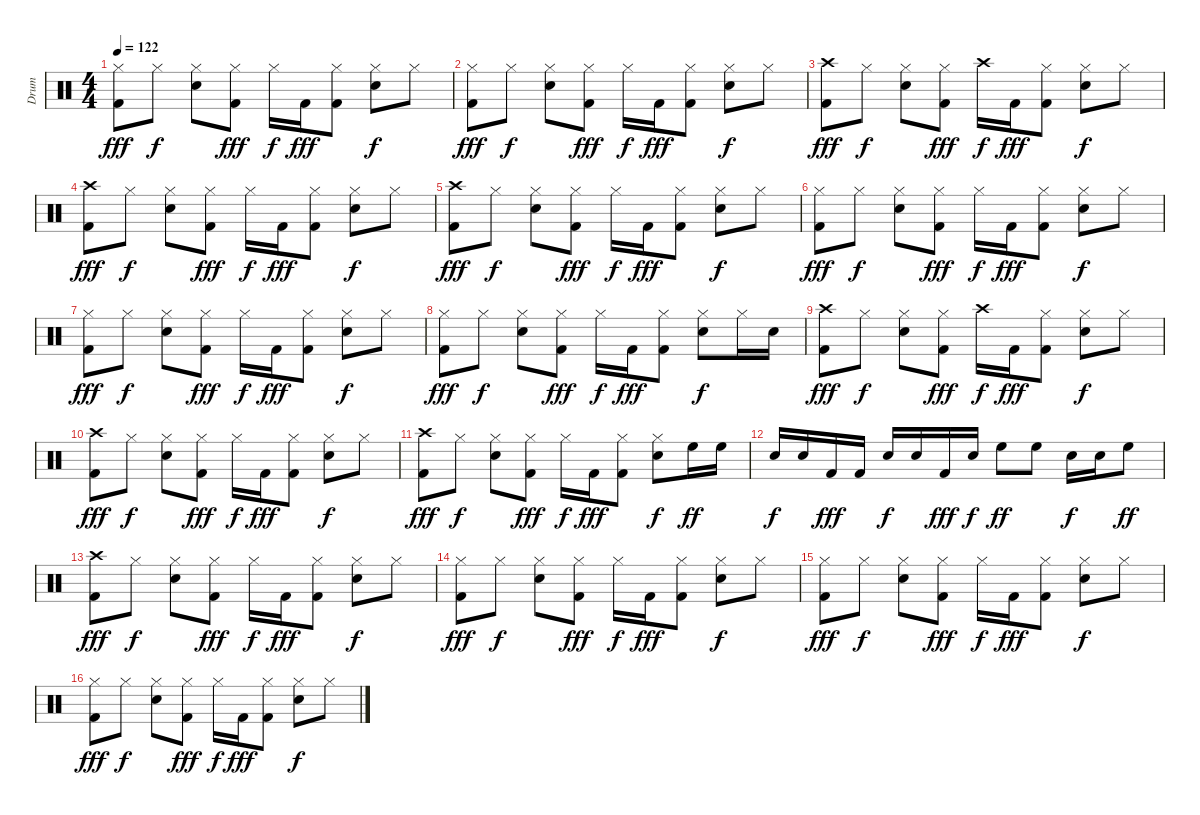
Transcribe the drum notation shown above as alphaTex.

\track ("Drum" "Drum") {instrument percussion}
\staff {score}
\articulation defaults
\ts (4 4)
\tempo 122
\clef neutral
\ks c
("Hi-Hat (closed)" "Kick (hit) 2").8{dy fff} "Hi-Hat (closed)".8{dy f} ("Hi-Hat (closed)" "Snare (hit) 2").8 ("Hi-Hat (closed)" "Kick (hit) 2").8{dy fff} "Hi-Hat (closed)".16{dy f} "Kick (hit) 2".16{dy fff} ("Hi-Hat (closed)" "Kick (hit) 2").8 ("Hi-Hat (closed)" "Snare (hit) 2").8{dy f} "Hi-Hat (closed)".8 |
("Hi-Hat (closed)" "Kick (hit) 2").8{dy fff} "Hi-Hat (closed)".8{dy f} ("Hi-Hat (closed)" "Snare (hit) 2").8 ("Hi-Hat (closed)" "Kick (hit) 2").8{dy fff} "Hi-Hat (closed)".16{dy f} "Kick (hit) 2".16{dy fff} ("Hi-Hat (closed)" "Kick (hit) 2").8 ("Hi-Hat (closed)" "Snare (hit) 2").8{dy f} "Hi-Hat (closed)".8 |
("Crash high (hit)" "Kick (hit) 2").8{dy fff} "Hi-Hat (closed)".8{dy f} ("Hi-Hat (closed)" "Snare (hit) 2").8 ("Hi-Hat (closed)" "Kick (hit) 2").8{dy fff} "Crash high (hit)".16{dy f} "Kick (hit) 2".16{dy fff} ("Hi-Hat (closed)" "Kick (hit) 2").8 ("Hi-Hat (closed)" "Snare (hit) 2").8{dy f} "Hi-Hat (closed)".8 |
("Crash high (hit)" "Kick (hit) 2").8{dy fff} "Hi-Hat (closed)".8{dy f} ("Hi-Hat (closed)" "Snare (hit) 2").8 ("Hi-Hat (closed)" "Kick (hit) 2").8{dy fff} "Hi-Hat (closed)".16{dy f} "Kick (hit) 2".16{dy fff} ("Hi-Hat (closed)" "Kick (hit) 2").8 ("Hi-Hat (closed)" "Snare (hit) 2").8{dy f} "Hi-Hat (closed)".8 |
("Crash high (hit)" "Kick (hit) 2").8{dy fff} "Hi-Hat (closed)".8{dy f} ("Hi-Hat (closed)" "Snare (hit) 2").8 ("Hi-Hat (closed)" "Kick (hit) 2").8{dy fff} "Hi-Hat (closed)".16{dy f} "Kick (hit) 2".16{dy fff} ("Hi-Hat (closed)" "Kick (hit) 2").8 ("Hi-Hat (closed)" "Snare (hit) 2").8{dy f} "Hi-Hat (closed)".8 |
("Hi-Hat (closed)" "Kick (hit) 2").8{dy fff} "Hi-Hat (closed)".8{dy f} ("Hi-Hat (closed)" "Snare (hit) 2").8 ("Hi-Hat (closed)" "Kick (hit) 2").8{dy fff} "Hi-Hat (closed)".16{dy f} "Kick (hit) 2".16{dy fff} ("Hi-Hat (closed)" "Kick (hit) 2").8 ("Hi-Hat (closed)" "Snare (hit) 2").8{dy f} "Hi-Hat (closed)".8 |
("Hi-Hat (closed)" "Kick (hit) 2").8{dy fff} "Hi-Hat (closed)".8{dy f} ("Hi-Hat (closed)" "Snare (hit) 2").8 ("Hi-Hat (closed)" "Kick (hit) 2").8{dy fff} "Hi-Hat (closed)".16{dy f} "Kick (hit) 2".16{dy fff} ("Hi-Hat (closed)" "Kick (hit) 2").8 ("Hi-Hat (closed)" "Snare (hit) 2").8{dy f} "Hi-Hat (closed)".8 |
("Hi-Hat (closed)" "Kick (hit) 2").8{dy fff} "Hi-Hat (closed)".8{dy f} ("Hi-Hat (closed)" "Snare (hit) 2").8 ("Hi-Hat (closed)" "Kick (hit) 2").8{dy fff} "Hi-Hat (closed)".16{dy f} "Kick (hit) 2".16{dy fff} ("Hi-Hat (closed)" "Kick (hit) 2").8 ("Hi-Hat (closed)" "Snare (hit) 2").8{dy f} "Hi-Hat (closed)".16 "Snare (hit) 2".16 |
("Crash high (hit)" "Kick (hit) 2").8{dy fff} "Hi-Hat (closed)".8{dy f} ("Hi-Hat (closed)" "Snare (hit) 2").8 ("Hi-Hat (closed)" "Kick (hit) 2").8{dy fff} "Crash high (hit)".16{dy f} "Kick (hit) 2".16{dy fff} ("Hi-Hat (closed)" "Kick (hit) 2").8 ("Hi-Hat (closed)" "Snare (hit) 2").8{dy f} "Hi-Hat (closed)".8 |
("Crash high (hit)" "Kick (hit) 2").8{dy fff} "Hi-Hat (closed)".8{dy f} ("Hi-Hat (closed)" "Snare (hit) 2").8 ("Hi-Hat (closed)" "Kick (hit) 2").8{dy fff} "Hi-Hat (closed)".16{dy f} "Kick (hit) 2".16{dy fff} ("Hi-Hat (closed)" "Kick (hit) 2").8 ("Hi-Hat (closed)" "Snare (hit) 2").8{dy f} "Hi-Hat (closed)".8 |
("Crash high (hit)" "Kick (hit) 2").8{dy fff} "Hi-Hat (closed)".8{dy f} ("Hi-Hat (closed)" "Snare (hit) 2").8 ("Hi-Hat (closed)" "Kick (hit) 2").8{dy fff} "Hi-Hat (closed)".16{dy f} "Kick (hit) 2".16{dy fff} ("Hi-Hat (closed)" "Kick (hit) 2").8 ("Hi-Hat (closed)" "Snare (hit) 2").8{dy f} "High Floor Tom (hit)".16{dy ff} "High Floor Tom (hit)".16 |
"Snare (hit) 2".16{dy f} "Snare (hit) 2".16 "Kick (hit) 2".16{dy fff} "Kick (hit) 2".16 "Snare (hit) 2".16{dy f} "Snare (hit) 2".16 "Kick (hit) 2".16{dy fff} "Snare (hit) 2".16{dy f} "High Floor Tom (hit)".8{dy ff} "High Floor Tom (hit)".8 "Snare (hit) 2".16{dy f} "Snare (hit) 2".16 "High Floor Tom (hit)".8{dy ff} |
("Crash high (hit)" "Kick (hit) 2").8{dy fff} "Hi-Hat (closed)".8{dy f} ("Hi-Hat (closed)" "Snare (hit) 2").8 ("Hi-Hat (closed)" "Kick (hit) 2").8{dy fff} "Hi-Hat (closed)".16{dy f} "Kick (hit) 2".16{dy fff} ("Hi-Hat (closed)" "Kick (hit) 2").8 ("Hi-Hat (closed)" "Snare (hit) 2").8{dy f} "Hi-Hat (closed)".8 |
("Hi-Hat (closed)" "Kick (hit) 2").8{dy fff} "Hi-Hat (closed)".8{dy f} ("Hi-Hat (closed)" "Snare (hit) 2").8 ("Hi-Hat (closed)" "Kick (hit) 2").8{dy fff} "Hi-Hat (closed)".16{dy f} "Kick (hit) 2".16{dy fff} ("Hi-Hat (closed)" "Kick (hit) 2").8 ("Hi-Hat (closed)" "Snare (hit) 2").8{dy f} "Hi-Hat (closed)".8 |
("Hi-Hat (closed)" "Kick (hit) 2").8{dy fff} "Hi-Hat (closed)".8{dy f} ("Hi-Hat (closed)" "Snare (hit) 2").8 ("Hi-Hat (closed)" "Kick (hit) 2").8{dy fff} "Hi-Hat (closed)".16{dy f} "Kick (hit) 2".16{dy fff} ("Hi-Hat (closed)" "Kick (hit) 2").8 ("Hi-Hat (closed)" "Snare (hit) 2").8{dy f} "Hi-Hat (closed)".8 |
("Hi-Hat (closed)" "Kick (hit) 2").8{dy fff} "Hi-Hat (closed)".8{dy f} ("Hi-Hat (closed)" "Snare (hit) 2").8 ("Hi-Hat (closed)" "Kick (hit) 2").8{dy fff} "Hi-Hat (closed)".16{dy f} "Kick (hit) 2".16{dy fff} ("Hi-Hat (closed)" "Kick (hit) 2").8 ("Hi-Hat (closed)" "Snare (hit) 2").8{dy f} "Hi-Hat (closed)".8
